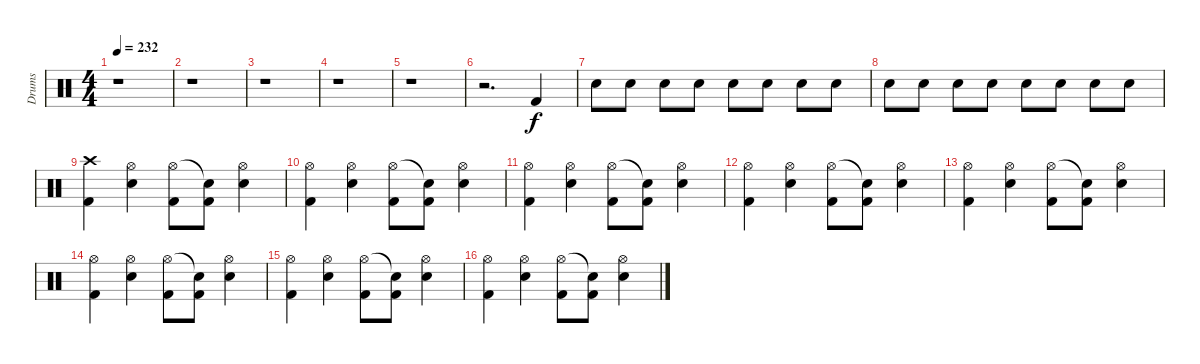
\track ("Drums" "Drums") {instrument percussion}
\staff {score}
\articulation defaults
\ts (4 4)
\tempo 232
\clef neutral
\ks c
r.1{dy f} |
r.1 |
r.1 |
r.1 |
r.1 |
r.2{d} "Kick (hit) 2".4 |
"Snare (hit) 2".8 "Snare (hit) 2".8 "Snare (hit) 2".8 "Snare (hit) 2".8 "Snare (hit) 2".8 "Snare (hit) 2".8 "Snare (hit) 2".8 "Snare (hit) 2".8 |
"Snare (hit) 2".8 "Snare (hit) 2".8 "Snare (hit) 2".8 "Snare (hit) 2".8 "Snare (hit) 2".8 "Snare (hit) 2".8 "Snare (hit) 2".8 "Snare (hit) 2".8 |
("Crash high (hit)" "Kick (hit) 2").4 ("Hi-Hat (open)" "Snare (hit) 2").4 ("Hi-Hat (open)" "Kick (hit) 2").8 ("Snare (hit)"{t} "Kick (hit) 2").8 ("Hi-Hat (open)" "Snare (hit) 2").4 |
("Hi-Hat (open)" "Kick (hit) 2").4 ("Hi-Hat (open)" "Snare (hit) 2").4 ("Hi-Hat (open)" "Kick (hit) 2").8 ("Snare (hit)"{t} "Kick (hit) 2").8 ("Hi-Hat (open)" "Snare (hit) 2").4 |
("Hi-Hat (open)" "Kick (hit) 2").4 ("Hi-Hat (open)" "Snare (hit) 2").4 ("Hi-Hat (open)" "Kick (hit) 2").8 ("Snare (hit)"{t} "Kick (hit) 2").8 ("Hi-Hat (open)" "Snare (hit) 2").4 |
("Hi-Hat (open)" "Kick (hit) 2").4 ("Hi-Hat (open)" "Snare (hit) 2").4 ("Hi-Hat (open)" "Kick (hit) 2").8 ("Snare (hit)"{t} "Kick (hit) 2").8 ("Hi-Hat (open)" "Snare (hit) 2").4 |
("Hi-Hat (open)" "Kick (hit) 2").4 ("Hi-Hat (open)" "Snare (hit) 2").4 ("Hi-Hat (open)" "Kick (hit) 2").8 ("Snare (hit)"{t} "Kick (hit) 2").8 ("Hi-Hat (open)" "Snare (hit) 2").4 |
("Hi-Hat (open)" "Kick (hit) 2").4 ("Hi-Hat (open)" "Snare (hit) 2").4 ("Hi-Hat (open)" "Kick (hit) 2").8 ("Snare (hit)"{t} "Kick (hit) 2").8 ("Hi-Hat (open)" "Snare (hit) 2").4 |
("Hi-Hat (open)" "Kick (hit) 2").4 ("Hi-Hat (open)" "Snare (hit) 2").4 ("Hi-Hat (open)" "Kick (hit) 2").8 ("Snare (hit)"{t} "Kick (hit) 2").8 ("Hi-Hat (open)" "Snare (hit) 2").4 |
("Hi-Hat (open)" "Kick (hit) 2").4 ("Hi-Hat (open)" "Snare (hit) 2").4 ("Hi-Hat (open)" "Kick (hit) 2").8 ("Snare (hit)"{t} "Kick (hit) 2").8 ("Hi-Hat (open)" "Snare (hit) 2").4
